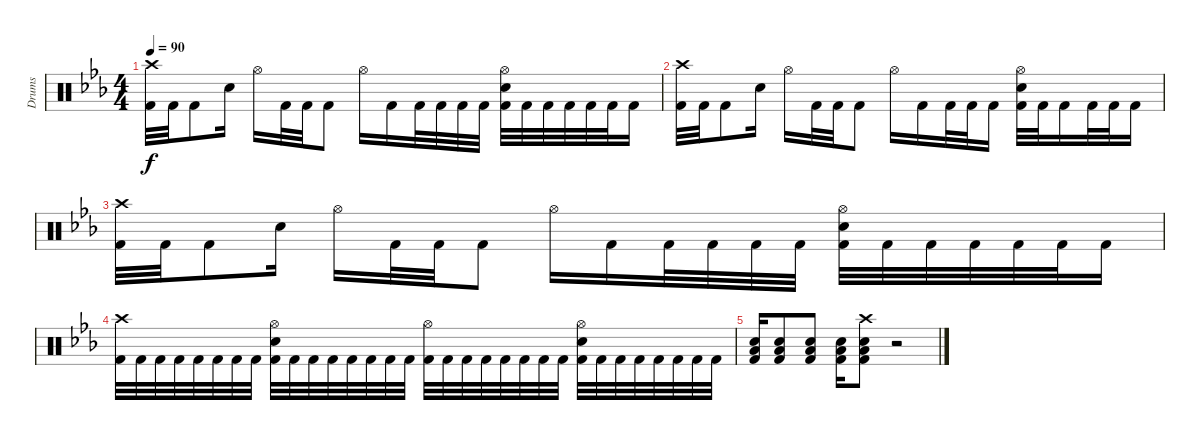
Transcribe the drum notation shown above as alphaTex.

\track ("Drums" "Drums") {instrument percussion}
\staff {score}
\articulation defaults
\ts (4 4)
\tempo 90
\clef neutral
\ks cminor
("Crash high (hit)" "Kick (hit) 2").32{dy f} "Kick (hit) 2".32 "Kick (hit) 2".8 "Electric Snare (hit)".16 "Hi-Hat (open)".16 "Kick (hit) 2".32 "Kick (hit) 2".32 "Kick (hit) 2".8 "Hi-Hat (open)".16 "Kick (hit) 2".16 "Kick (hit) 2".32 "Kick (hit) 2".32 "Kick (hit) 2".32 "Kick (hit) 2".32 ("Hi-Hat (open)" "Electric Snare (hit)" "Kick (hit) 2").32 "Kick (hit) 2".32 "Kick (hit) 2".32 "Kick (hit) 2".32 "Kick (hit) 2".32 "Kick (hit) 2".32 "Kick (hit) 2".16 |
("Crash high (hit)" "Kick (hit) 2").32 "Kick (hit) 2".32 "Kick (hit) 2".8 "Electric Snare (hit)".16 "Hi-Hat (open)".16 "Kick (hit) 2".32 "Kick (hit) 2".32 "Kick (hit) 2".8 "Hi-Hat (open)".16 "Kick (hit) 2".16 "Kick (hit) 2".32 "Kick (hit) 2".32 "Kick (hit) 2".16 ("Hi-Hat (open)" "Electric Snare (hit)" "Kick (hit) 2").32 "Kick (hit) 2".32 "Kick (hit) 2".16 "Kick (hit) 2".32 "Kick (hit) 2".32 "Kick (hit) 2".16 |
("Crash high (hit)" "Kick (hit) 2").32 "Kick (hit) 2".32 "Kick (hit) 2".8 "Electric Snare (hit)".16 "Hi-Hat (open)".16 "Kick (hit) 2".32 "Kick (hit) 2".32 "Kick (hit) 2".8 "Hi-Hat (open)".16 "Kick (hit) 2".16 "Kick (hit) 2".32 "Kick (hit) 2".32 "Kick (hit) 2".32 "Kick (hit) 2".32 ("Hi-Hat (open)" "Electric Snare (hit)" "Kick (hit) 2").32 "Kick (hit) 2".32 "Kick (hit) 2".32 "Kick (hit) 2".32 "Kick (hit) 2".32 "Kick (hit) 2".32 "Kick (hit) 2".16 |
("Crash high (hit)" "Kick (hit) 2").32 "Kick (hit) 2".32 "Kick (hit) 2".32 "Kick (hit) 2".32 "Kick (hit) 2".32 "Kick (hit) 2".32 "Kick (hit) 2".32 "Kick (hit) 2".32 ("Hi-Hat (open)" "Electric Snare (hit)" "Kick (hit) 2").32 "Kick (hit) 2".32 "Kick (hit) 2".32 "Kick (hit) 2".32 "Kick (hit) 2".32 "Kick (hit) 2".32 "Kick (hit) 2".32 "Kick (hit) 2".32 ("Hi-Hat (open)" "Kick (hit) 2").32 "Kick (hit) 2".32 "Kick (hit) 2".32 "Kick (hit) 2".32 "Kick (hit) 2".32 "Kick (hit) 2".32 "Kick (hit) 2".32 "Kick (hit) 2".32 ("Hi-Hat (open)" "Electric Snare (hit)" "Kick (hit) 2").32 "Kick (hit) 2".32 "Kick (hit) 2".32 "Kick (hit) 2".32 "Kick (hit) 2".32 "Kick (hit) 2".32 "Kick (hit) 2".32 "Kick (hit) 2".32 |
("Low Floor Tom (hit)" "Electric Snare (hit)" "Kick (hit) 2").16 ("Low Floor Tom (hit)" "Electric Snare (hit)" "Kick (hit) 2").8 ("Low Floor Tom (hit)" "Electric Snare (hit)" "Kick (hit) 2").8 ("Low Floor Tom (hit)" "Electric Snare (hit)" "Kick (hit) 2").16 ("Crash high (hit)" "Low Floor Tom (hit)" "Electric Snare (hit)" "Kick (hit) 2").8 r.2
